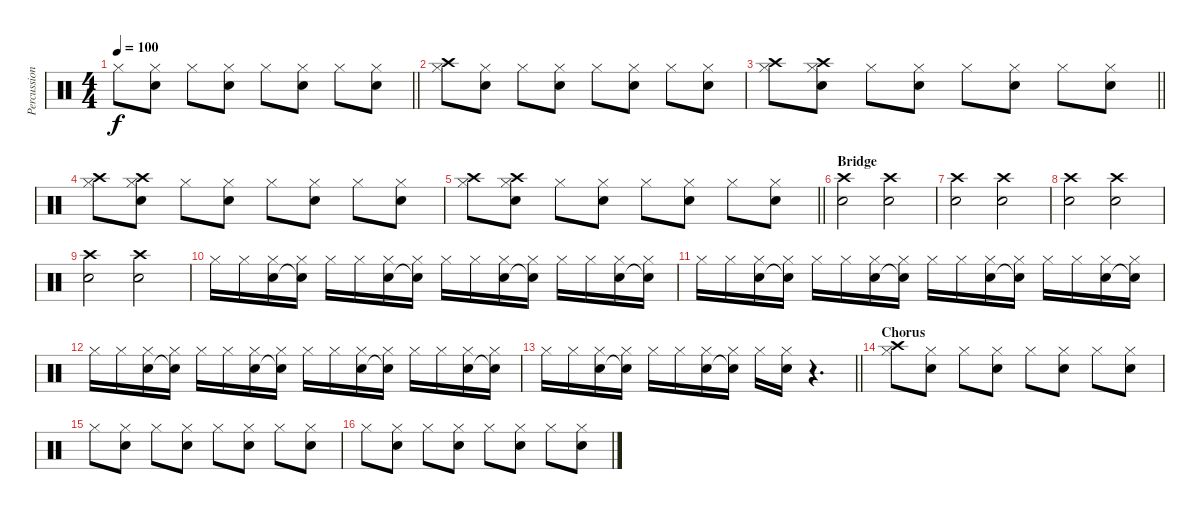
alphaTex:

\track ("Percussion" "Percussion") {instrument percussion}
\staff {score}
\articulation defaults
\ts (4 4)
\tempo 100
\clef neutral
\barLineRight lightlight
\ks c "Hi-Hat (closed)".8{dy f}
("Hi-Hat (closed)" "Snare (hit) 2").8 "Hi-Hat (closed)".8 ("Hi-Hat (closed)" "Snare (hit) 2").8 "Hi-Hat (closed)".8 ("Hi-Hat (closed)" "Snare (hit) 2").8 "Hi-Hat (closed)".8 ("Hi-Hat (closed)" "Snare (hit) 2").8 |
("Hi-Hat (closed)" "Crash high (hit)").8 ("Hi-Hat (closed)" "Snare (hit) 2").8 "Hi-Hat (closed)".8 ("Hi-Hat (closed)" "Snare (hit) 2").8 "Hi-Hat (closed)".8 ("Hi-Hat (closed)" "Snare (hit) 2").8 "Hi-Hat (closed)".8 ("Hi-Hat (closed)" "Snare (hit) 2").8 |
\barLineRight lightlight
("Hi-Hat (closed)" "Crash high (hit)").8 ("Hi-Hat (closed)" "Snare (hit) 2" "Crash high (hit)").8 "Hi-Hat (closed)".8 ("Hi-Hat (closed)" "Snare (hit) 2").8 "Hi-Hat (closed)".8 ("Hi-Hat (closed)" "Snare (hit) 2").8 "Hi-Hat (closed)".8 ("Hi-Hat (closed)" "Snare (hit) 2").8 |
("Hi-Hat (closed)" "Crash high (hit)").8 ("Hi-Hat (closed)" "Snare (hit) 2" "Crash high (hit)").8 "Hi-Hat (closed)".8 ("Hi-Hat (closed)" "Snare (hit) 2").8 "Hi-Hat (closed)".8 ("Hi-Hat (closed)" "Snare (hit) 2").8 "Hi-Hat (closed)".8 ("Hi-Hat (closed)" "Snare (hit) 2").8 |
\barLineRight lightlight
("Hi-Hat (closed)" "Crash high (hit)").8 ("Hi-Hat (closed)" "Snare (hit) 2" "Crash high (hit)").8 "Hi-Hat (closed)".8 ("Hi-Hat (closed)" "Snare (hit) 2").8 "Hi-Hat (closed)".8 ("Hi-Hat (closed)" "Snare (hit) 2").8 "Hi-Hat (closed)".8 ("Hi-Hat (closed)" "Snare (hit) 2").8 |
\section ("" "Bridge")
("Crash high (hit)" "Snare (hit) 2").2 ("Crash high (hit)" "Snare (hit) 2").2 |
("Crash high (hit)" "Snare (hit) 2").2 ("Crash high (hit)" "Snare (hit) 2").2 |
("Crash high (hit)" "Snare (hit) 2").2 ("Crash high (hit)" "Snare (hit) 2").2 |
("Crash high (hit)" "Snare (hit) 2").2 ("Crash high (hit)" "Snare (hit) 2").2 |
"Hi-Hat (closed)".16 "Hi-Hat (closed)".16 ("Hi-Hat (closed)" "Snare (hit) 2").16 ("Hi-Hat (closed)" "Snare (hit)"{t}).16 "Hi-Hat (closed)".16 "Hi-Hat (closed)".16 ("Hi-Hat (closed)" "Snare (hit) 2").16 ("Hi-Hat (closed)" "Snare (hit)"{t}).16 "Hi-Hat (closed)".16 "Hi-Hat (closed)".16 ("Hi-Hat (closed)" "Snare (hit) 2").16 ("Hi-Hat (closed)" "Snare (hit)"{t}).16 "Hi-Hat (closed)".16 "Hi-Hat (closed)".16 ("Hi-Hat (closed)" "Snare (hit) 2").16 ("Hi-Hat (closed)" "Snare (hit)"{t}).16 |
"Hi-Hat (closed)".16 "Hi-Hat (closed)".16 ("Hi-Hat (closed)" "Snare (hit) 2").16 ("Hi-Hat (closed)" "Snare (hit)"{t}).16 "Hi-Hat (closed)".16 "Hi-Hat (closed)".16 ("Hi-Hat (closed)" "Snare (hit) 2").16 ("Hi-Hat (closed)" "Snare (hit)"{t}).16 "Hi-Hat (closed)".16 "Hi-Hat (closed)".16 ("Hi-Hat (closed)" "Snare (hit) 2").16 ("Hi-Hat (closed)" "Snare (hit)"{t}).16 "Hi-Hat (closed)".16 "Hi-Hat (closed)".16 ("Hi-Hat (closed)" "Snare (hit) 2").16 ("Hi-Hat (closed)" "Snare (hit)"{t}).16 |
"Hi-Hat (closed)".16 "Hi-Hat (closed)".16 ("Hi-Hat (closed)" "Snare (hit) 2").16 ("Hi-Hat (closed)" "Snare (hit)"{t}).16 "Hi-Hat (closed)".16 "Hi-Hat (closed)".16 ("Hi-Hat (closed)" "Snare (hit) 2").16 ("Hi-Hat (closed)" "Snare (hit)"{t}).16 "Hi-Hat (closed)".16 "Hi-Hat (closed)".16 ("Hi-Hat (closed)" "Snare (hit) 2").16 ("Hi-Hat (closed)" "Snare (hit)"{t}).16 "Hi-Hat (closed)".16 "Hi-Hat (closed)".16 ("Hi-Hat (closed)" "Snare (hit) 2").16 ("Hi-Hat (closed)" "Snare (hit)"{t}).16 |
\barLineRight lightlight "Hi-Hat (closed)".16 "Hi-Hat (closed)".16
("Hi-Hat (closed)" "Snare (hit) 2").16 ("Hi-Hat (closed)" "Snare (hit)"{t}).16 "Hi-Hat (closed)".16 "Hi-Hat (closed)".16 ("Hi-Hat (closed)" "Snare (hit) 2").16 ("Hi-Hat (closed)" "Snare (hit)"{t}).16 "Hi-Hat (closed)".16 ("Hi-Hat (closed)" "Snare (hit) 2").16 r.4{d} |
\section ("" "Chorus")
("Hi-Hat (closed)" "Crash high (hit)").8 ("Hi-Hat (closed)" "Snare (hit) 2").8 "Hi-Hat (closed)".8 ("Hi-Hat (closed)" "Snare (hit) 2").8 "Hi-Hat (closed)".8 ("Hi-Hat (closed)" "Snare (hit) 2").8 "Hi-Hat (closed)".8 ("Hi-Hat (closed)" "Snare (hit) 2").8 |
"Hi-Hat (closed)".8 ("Hi-Hat (closed)" "Snare (hit) 2").8 "Hi-Hat (closed)".8 ("Hi-Hat (closed)" "Snare (hit) 2").8 "Hi-Hat (closed)".8 ("Hi-Hat (closed)" "Snare (hit) 2").8 "Hi-Hat (closed)".8 ("Hi-Hat (closed)" "Snare (hit) 2").8 |
"Hi-Hat (closed)".8 ("Hi-Hat (closed)" "Snare (hit) 2").8 "Hi-Hat (closed)".8 ("Hi-Hat (closed)" "Snare (hit) 2").8 "Hi-Hat (closed)".8 ("Hi-Hat (closed)" "Snare (hit) 2").8 "Hi-Hat (closed)".8 ("Hi-Hat (closed)" "Snare (hit) 2").8
